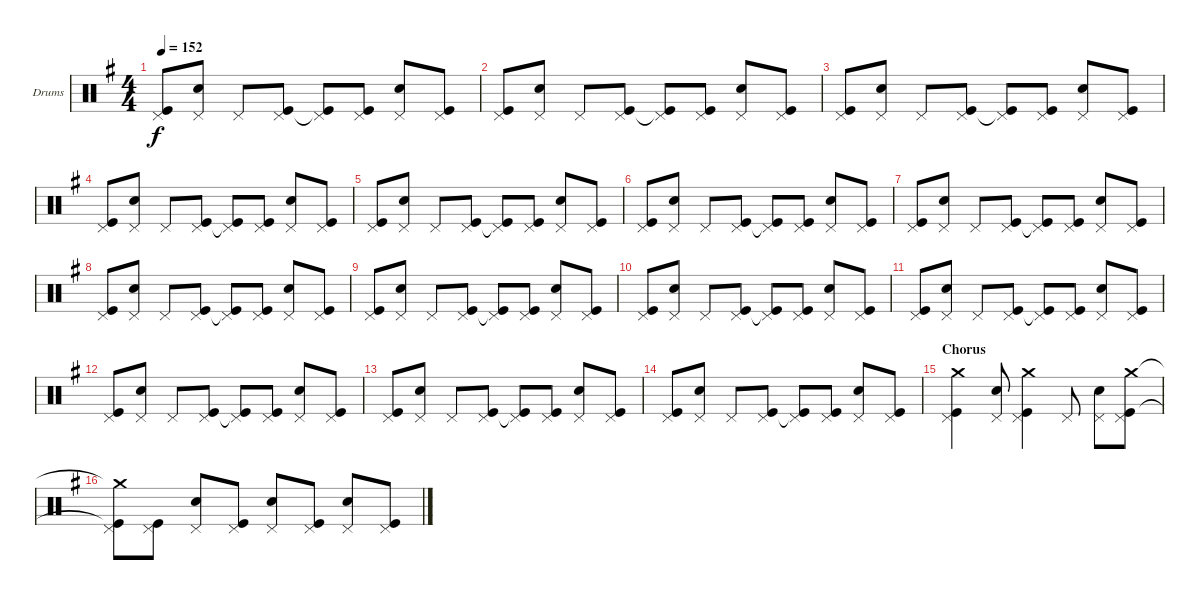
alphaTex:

\defaultSystemsLayout 4
\bracketExtendMode groupsimilarinstruments
\firstSystemTrackNameOrientation horizontal
\otherSystemsTrackNameOrientation horizontal
\track ("Drumkit" "Drums") {instrument percussion}
\staff {score}
\articulation defaults
\ts (4 4)
\tempo 152
\clef neutral
\scale
1.08575
\ks g
("Kick (hit)" "Pedal Hi-Hat (hit)").8{dy f} ("Snare (hit) 2" "Pedal Hi-Hat (hit)").8 "Pedal Hi-Hat (hit)".8 ("Kick (hit)" "Pedal Hi-Hat (hit)").8 ("Kick (hit)"{t} "Pedal Hi-Hat (hit)").8 ("Kick (hit)" "Pedal Hi-Hat (hit)").8 ("Snare (hit) 2" "Pedal Hi-Hat (hit)").8 ("Kick (hit)" "Pedal Hi-Hat (hit)").8 |
\scale
0.957125 ("Kick (hit)" "Pedal Hi-Hat (hit)").8 ("Snare (hit) 2" "Pedal Hi-Hat (hit)").8 "Pedal Hi-Hat (hit)".8 ("Kick (hit)" "Pedal Hi-Hat (hit)").8 ("Kick (hit)"{t} "Pedal Hi-Hat (hit)").8 ("Kick (hit)" "Pedal Hi-Hat (hit)").8 ("Snare (hit) 2" "Pedal Hi-Hat (hit)").8 ("Kick (hit)" "Pedal Hi-Hat (hit)").8 |
\scale
0.957125 ("Kick (hit)" "Pedal Hi-Hat (hit)").8 ("Snare (hit) 2" "Pedal Hi-Hat (hit)").8 "Pedal Hi-Hat (hit)".8 ("Kick (hit)" "Pedal Hi-Hat (hit)").8 ("Kick (hit)"{t} "Pedal Hi-Hat (hit)").8 ("Kick (hit)" "Pedal Hi-Hat (hit)").8 ("Snare (hit) 2" "Pedal Hi-Hat (hit)").8 ("Kick (hit)" "Pedal Hi-Hat (hit)").8 |
\scale
1.08575 ("Kick (hit)" "Pedal Hi-Hat (hit)").8 ("Snare (hit) 2" "Pedal Hi-Hat (hit)").8 "Pedal Hi-Hat (hit)".8 ("Kick (hit)" "Pedal Hi-Hat (hit)").8 ("Kick (hit)"{t} "Pedal Hi-Hat (hit)").8 ("Kick (hit)" "Pedal Hi-Hat (hit)").8 ("Snare (hit) 2" "Pedal Hi-Hat (hit)").8 ("Kick (hit)" "Pedal Hi-Hat (hit)").8 |
\scale
0.957125 ("Kick (hit)" "Pedal Hi-Hat (hit)").8 ("Snare (hit) 2" "Pedal Hi-Hat (hit)").8 "Pedal Hi-Hat (hit)".8 ("Kick (hit)" "Pedal Hi-Hat (hit)").8 ("Kick (hit)"{t} "Pedal Hi-Hat (hit)").8 ("Kick (hit)" "Pedal Hi-Hat (hit)").8 ("Snare (hit) 2" "Pedal Hi-Hat (hit)").8 ("Kick (hit)" "Pedal Hi-Hat (hit)").8 |
\scale
0.957125 ("Kick (hit)" "Pedal Hi-Hat (hit)").8 ("Snare (hit) 2" "Pedal Hi-Hat (hit)").8 "Pedal Hi-Hat (hit)".8 ("Kick (hit)" "Pedal Hi-Hat (hit)").8 ("Kick (hit)"{t} "Pedal Hi-Hat (hit)").8 ("Kick (hit)" "Pedal Hi-Hat (hit)").8 ("Snare (hit) 2" "Pedal Hi-Hat (hit)").8 ("Kick (hit)" "Pedal Hi-Hat (hit)").8 |
\scale
1.08575 ("Kick (hit)" "Pedal Hi-Hat (hit)").8 ("Snare (hit) 2" "Pedal Hi-Hat (hit)").8 "Pedal Hi-Hat (hit)".8 ("Kick (hit)" "Pedal Hi-Hat (hit)").8 ("Kick (hit)"{t} "Pedal Hi-Hat (hit)").8 ("Kick (hit)" "Pedal Hi-Hat (hit)").8 ("Snare (hit) 2" "Pedal Hi-Hat (hit)").8 ("Kick (hit)" "Pedal Hi-Hat (hit)").8 |
\scale
0.957125 ("Kick (hit)" "Pedal Hi-Hat (hit)").8 ("Snare (hit) 2" "Pedal Hi-Hat (hit)").8 "Pedal Hi-Hat (hit)".8 ("Kick (hit)" "Pedal Hi-Hat (hit)").8 ("Kick (hit)"{t} "Pedal Hi-Hat (hit)").8 ("Kick (hit)" "Pedal Hi-Hat (hit)").8 ("Snare (hit) 2" "Pedal Hi-Hat (hit)").8 ("Kick (hit)" "Pedal Hi-Hat (hit)").8 |
\scale
0.957125 ("Kick (hit)" "Pedal Hi-Hat (hit)").8 ("Snare (hit) 2" "Pedal Hi-Hat (hit)").8 "Pedal Hi-Hat (hit)".8 ("Kick (hit)" "Pedal Hi-Hat (hit)").8 ("Kick (hit)"{t} "Pedal Hi-Hat (hit)").8 ("Kick (hit)" "Pedal Hi-Hat (hit)").8 ("Snare (hit) 2" "Pedal Hi-Hat (hit)").8 ("Kick (hit)" "Pedal Hi-Hat (hit)").8 |
\scale
1.08575 ("Kick (hit)" "Pedal Hi-Hat (hit)").8 ("Snare (hit) 2" "Pedal Hi-Hat (hit)").8 "Pedal Hi-Hat (hit)".8 ("Kick (hit)" "Pedal Hi-Hat (hit)").8 ("Kick (hit)"{t} "Pedal Hi-Hat (hit)").8 ("Kick (hit)" "Pedal Hi-Hat (hit)").8 ("Snare (hit) 2" "Pedal Hi-Hat (hit)").8 ("Kick (hit)" "Pedal Hi-Hat (hit)").8 |
\scale
0.957125 ("Kick (hit)" "Pedal Hi-Hat (hit)").8 ("Snare (hit) 2" "Pedal Hi-Hat (hit)").8 "Pedal Hi-Hat (hit)".8 ("Kick (hit)" "Pedal Hi-Hat (hit)").8 ("Kick (hit)"{t} "Pedal Hi-Hat (hit)").8 ("Kick (hit)" "Pedal Hi-Hat (hit)").8 ("Snare (hit) 2" "Pedal Hi-Hat (hit)").8 ("Kick (hit)" "Pedal Hi-Hat (hit)").8 |
\scale
0.957125 ("Kick (hit)" "Pedal Hi-Hat (hit)").8 ("Snare (hit) 2" "Pedal Hi-Hat (hit)").8 "Pedal Hi-Hat (hit)".8 ("Kick (hit)" "Pedal Hi-Hat (hit)").8 ("Kick (hit)"{t} "Pedal Hi-Hat (hit)").8 ("Kick (hit)" "Pedal Hi-Hat (hit)").8 ("Snare (hit) 2" "Pedal Hi-Hat (hit)").8 ("Kick (hit)" "Pedal Hi-Hat (hit)").8 |
\scale
1.08575 ("Kick (hit)" "Pedal Hi-Hat (hit)").8 ("Snare (hit) 2" "Pedal Hi-Hat (hit)").8 "Pedal Hi-Hat (hit)".8 ("Kick (hit)" "Pedal Hi-Hat (hit)").8 ("Kick (hit)"{t} "Pedal Hi-Hat (hit)").8 ("Kick (hit)" "Pedal Hi-Hat (hit)").8 ("Snare (hit) 2" "Pedal Hi-Hat (hit)").8 ("Kick (hit)" "Pedal Hi-Hat (hit)").8 |
\scale
0.957125 ("Kick (hit)" "Pedal Hi-Hat (hit)").8 ("Snare (hit) 2" "Pedal Hi-Hat (hit)").8 "Pedal Hi-Hat (hit)".8 ("Kick (hit)" "Pedal Hi-Hat (hit)").8 ("Kick (hit)"{t} "Pedal Hi-Hat (hit)").8 ("Kick (hit)" "Pedal Hi-Hat (hit)").8 ("Snare (hit) 2" "Pedal Hi-Hat (hit)").8 ("Kick (hit)" "Pedal Hi-Hat (hit)").8 |
\section ("" "Chorus")
\scale
0.957125 ("Kick (hit)" "Crash medium (hit)" "Pedal Hi-Hat (hit)").4 ("Snare (hit) 2" "Pedal Hi-Hat (hit)").8 ("Kick (hit)" "Crash medium (hit)" "Pedal Hi-Hat (hit)").4 "Pedal Hi-Hat (hit)".8 ("Snare (hit) 2" "Pedal Hi-Hat (hit)").8 ("Kick (hit)" "Crash medium (hit)" "Pedal Hi-Hat (hit)").8 |
\scale
1.08575 ("Kick (hit)"{t} "Crash medium (hit)"{t} "Pedal Hi-Hat (hit)").8 ("Kick (hit)" "Pedal Hi-Hat (hit)").8 ("Snare (hit) 2" "Pedal Hi-Hat (hit)").8 ("Kick (hit)" "Pedal Hi-Hat (hit)").8 ("Snare (hit) 2" "Pedal Hi-Hat (hit)").8 ("Kick (hit)" "Pedal Hi-Hat (hit)").8 ("Snare (hit) 2" "Pedal Hi-Hat (hit)").8 ("Kick (hit)" "Pedal Hi-Hat (hit)").8
